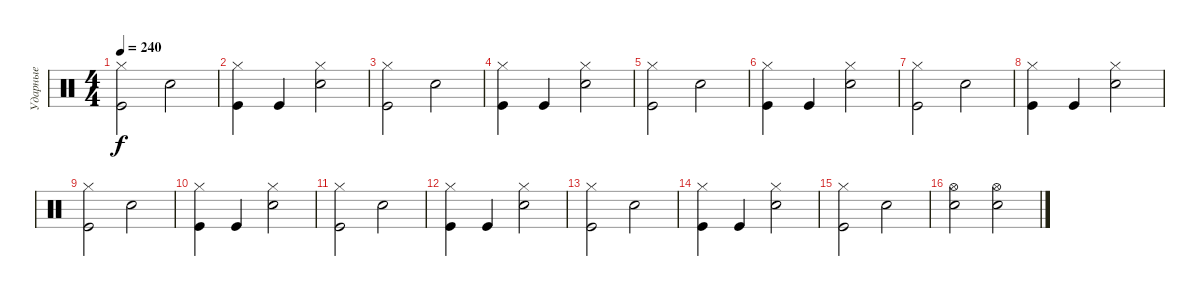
\track ("Ударные" "Ударные") {instrument percussion}
\staff {score}
\articulation defaults
\ts (4 4)
\tempo 240
\clef neutral
\ks c
("Hi-Hat (closed)" "Kick (hit)").2{dy f} "Snare (hit) 2".2 |
("Hi-Hat (closed)" "Kick (hit)").4 "Kick (hit)".4 ("Hi-Hat (closed)" "Snare (hit) 2").2 |
("Hi-Hat (closed)" "Kick (hit)").2 "Snare (hit) 2".2 |
("Hi-Hat (closed)" "Kick (hit)").4 "Kick (hit)".4 ("Hi-Hat (closed)" "Snare (hit) 2").2 |
("Hi-Hat (closed)" "Kick (hit)").2 "Snare (hit) 2".2 |
("Hi-Hat (closed)" "Kick (hit)").4 "Kick (hit)".4 ("Hi-Hat (closed)" "Snare (hit) 2").2 |
("Hi-Hat (closed)" "Kick (hit)").2 "Snare (hit) 2".2 |
("Hi-Hat (closed)" "Kick (hit)").4 "Kick (hit)".4 ("Hi-Hat (closed)" "Snare (hit) 2").2 |
("Hi-Hat (closed)" "Kick (hit)").2 "Snare (hit) 2".2 |
("Hi-Hat (closed)" "Kick (hit)").4 "Kick (hit)".4 ("Hi-Hat (closed)" "Snare (hit) 2").2 |
("Hi-Hat (closed)" "Kick (hit)").2 "Snare (hit) 2".2 |
("Hi-Hat (closed)" "Kick (hit)").4 "Kick (hit)".4 ("Hi-Hat (closed)" "Snare (hit) 2").2 |
("Hi-Hat (closed)" "Kick (hit)").2 "Snare (hit) 2".2 |
("Hi-Hat (closed)" "Kick (hit)").4 "Kick (hit)".4 ("Hi-Hat (closed)" "Snare (hit) 2").2 |
("Hi-Hat (closed)" "Kick (hit)").2 "Snare (hit) 2".2 |
("Hi-Hat (open)" "Snare (hit) 2").2 ("Hi-Hat (open)" "Snare (hit) 2").2
